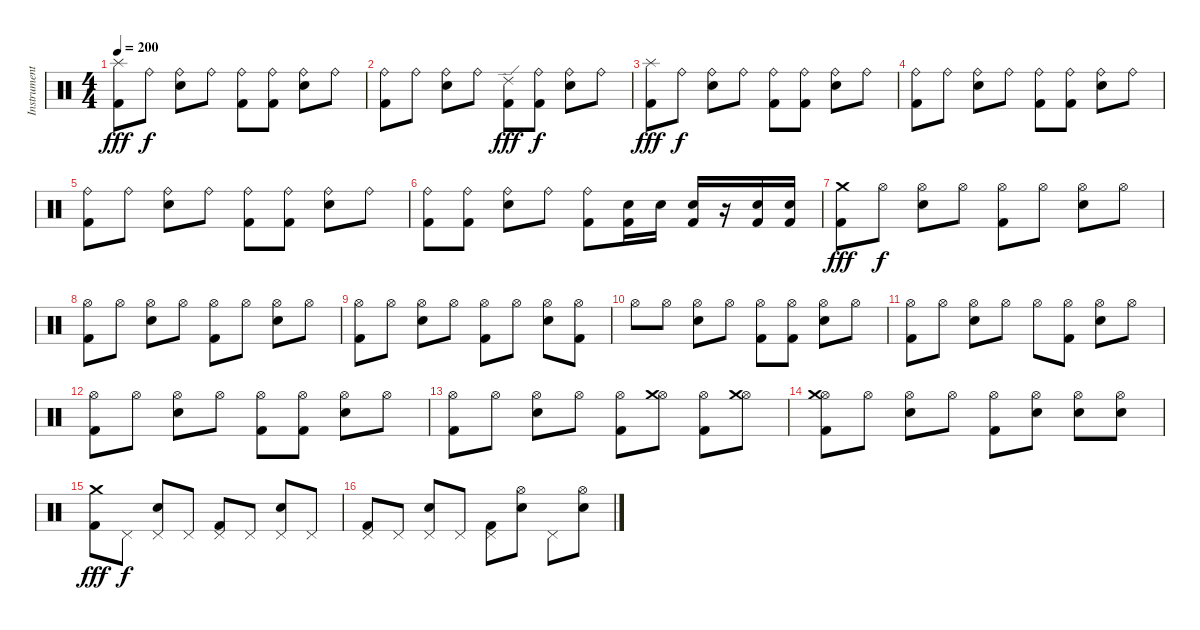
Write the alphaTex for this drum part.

\track ("Instrument 03" "Instrument") {instrument percussion}
\staff {score}
\articulation defaults
\ts (4 4)
\tempo 200
\clef neutral
\ks c
("Kick (hit) 2" "Splash (hit)").8{dy fff} "Ride (bell)".8{dy f} ("Snare (hit) 2" "Ride (bell)").8 "Ride (bell)".8 ("Kick (hit) 2" "Ride (bell)").8 ("Kick (hit) 2" "Ride (bell)").8 ("Snare (hit) 2" "Ride (bell)").8 "Ride (bell)".8 |
("Kick (hit) 2" "Ride (bell)").8 "Ride (bell)".8 ("Snare (hit) 2" "Ride (bell)").8 "Ride (bell)".8 ("Kick (hit) 2" "Ride (edge) 2").8{dy fff} ("Kick (hit) 2" "Ride (bell)").8{dy f} ("Snare (hit) 2" "Ride (bell)").8 "Ride (bell)".8 |
("Kick (hit) 2" "Splash (hit)").8{dy fff} "Ride (bell)".8{dy f} ("Snare (hit) 2" "Ride (bell)").8 "Ride (bell)".8 ("Kick (hit) 2" "Ride (bell)").8 ("Kick (hit) 2" "Ride (bell)").8 ("Snare (hit) 2" "Ride (bell)").8 "Ride (bell)".8 |
("Kick (hit) 2" "Ride (bell)").8 "Ride (bell)".8 ("Snare (hit) 2" "Ride (bell)").8 "Ride (bell)".8 ("Kick (hit) 2" "Ride (bell)").8 ("Kick (hit) 2" "Ride (bell)").8 ("Snare (hit) 2" "Ride (bell)").8 "Ride (bell)".8 |
("Kick (hit) 2" "Ride (bell)").8 "Ride (bell)".8 ("Snare (hit) 2" "Ride (bell)").8 "Ride (bell)".8 ("Kick (hit) 2" "Ride (bell)").8 ("Kick (hit) 2" "Ride (bell)").8 ("Snare (hit) 2" "Ride (bell)").8 "Ride (bell)".8 |
("Kick (hit) 2" "Ride (bell)").8 ("Kick (hit) 2" "Ride (bell)").8 ("Snare (hit) 2" "Ride (bell)").8 "Ride (bell)".8 ("Kick (hit) 2" "Ride (bell)").8 ("Kick (hit) 2" "Snare (hit) 2").16 "Snare (hit) 2".16 ("Kick (hit) 2" "Snare (hit) 2").16 r.16 ("Kick (hit) 2" "Snare (hit) 2").16 ("Kick (hit) 2" "Snare (hit) 2").16 |
("Kick (hit) 2" "Crash medium (hit)").8{dy fff} "Hi-Hat (open)".8{dy f} ("Snare (hit) 2" "Hi-Hat (open)").8 "Hi-Hat (open)".8 ("Kick (hit) 2" "Hi-Hat (open)").8 "Hi-Hat (open)".8 ("Snare (hit) 2" "Hi-Hat (open)").8 "Hi-Hat (open)".8 |
("Kick (hit) 2" "Hi-Hat (open)").8 "Hi-Hat (open)".8 ("Snare (hit) 2" "Hi-Hat (open)").8 "Hi-Hat (open)".8 ("Kick (hit) 2" "Hi-Hat (open)").8 "Hi-Hat (open)".8 ("Snare (hit) 2" "Hi-Hat (open)").8 "Hi-Hat (open)".8 |
("Kick (hit) 2" "Hi-Hat (open)").8 "Hi-Hat (open)".8 ("Snare (hit) 2" "Hi-Hat (open)").8 "Hi-Hat (open)".8 ("Kick (hit) 2" "Hi-Hat (open)").8 "Hi-Hat (open)".8 ("Snare (hit) 2" "Hi-Hat (open)").8 ("Kick (hit) 2" "Hi-Hat (open)").8 |
"Hi-Hat (open)".8 "Hi-Hat (open)".8 ("Snare (hit) 2" "Hi-Hat (open)").8 "Hi-Hat (open)".8 ("Kick (hit) 2" "Hi-Hat (open)").8 ("Kick (hit) 2" "Hi-Hat (open)").8 ("Snare (hit) 2" "Hi-Hat (open)").8 "Hi-Hat (open)".8 |
("Kick (hit) 2" "Hi-Hat (open)").8 "Hi-Hat (open)".8 ("Snare (hit) 2" "Hi-Hat (open)").8 "Hi-Hat (open)".8 "Hi-Hat (open)".8 ("Kick (hit) 2" "Hi-Hat (open)").8 ("Snare (hit) 2" "Hi-Hat (open)").8 "Hi-Hat (open)".8 |
("Kick (hit) 2" "Hi-Hat (open)").8 "Hi-Hat (open)".8 ("Snare (hit) 2" "Hi-Hat (open)").8 "Hi-Hat (open)".8 ("Kick (hit) 2" "Hi-Hat (open)").8 ("Kick (hit) 2" "Hi-Hat (open)").8 ("Snare (hit) 2" "Hi-Hat (open)").8 "Hi-Hat (open)".8 |
("Kick (hit) 2" "Hi-Hat (open)").8 "Hi-Hat (open)".8 ("Snare (hit) 2" "Hi-Hat (open)").8 "Hi-Hat (open)".8 ("Kick (hit) 2" "Hi-Hat (open)").8 ("Hi-Hat (open)" "Crash medium (hit)").8 ("Kick (hit) 2" "Hi-Hat (open)").8 ("Hi-Hat (open)" "Crash medium (hit)").8 |
("Kick (hit) 2" "Hi-Hat (open)" "Crash medium (hit)").8 "Hi-Hat (open)".8 ("Snare (hit) 2" "Hi-Hat (open)").8 "Hi-Hat (open)".8 ("Kick (hit) 2" "Hi-Hat (open)").8 ("Snare (hit) 2" "Hi-Hat (open)").8 ("Snare (hit) 2" "Hi-Hat (open)").8 ("Snare (hit) 2" "Hi-Hat (open)").8 |
("Kick (hit) 2" "Crash medium (hit)").8{dy fff} "Pedal Hi-Hat (hit)".8{dy f} ("Snare (hit) 2" "Pedal Hi-Hat (hit)").8 "Pedal Hi-Hat (hit)".8 ("Kick (hit) 2" "Pedal Hi-Hat (hit)").8 "Pedal Hi-Hat (hit)".8 ("Snare (hit) 2" "Pedal Hi-Hat (hit)").8 "Pedal Hi-Hat (hit)".8 |
("Kick (hit) 2" "Pedal Hi-Hat (hit)").8 "Pedal Hi-Hat (hit)".8 ("Snare (hit) 2" "Pedal Hi-Hat (hit)").8 "Pedal Hi-Hat (hit)".8 ("Kick (hit) 2" "Pedal Hi-Hat (hit)").8 ("Snare (hit) 2" "Hi-Hat (open)").8 "Pedal Hi-Hat (hit)".8 ("Snare (hit) 2" "Hi-Hat (open)").8
